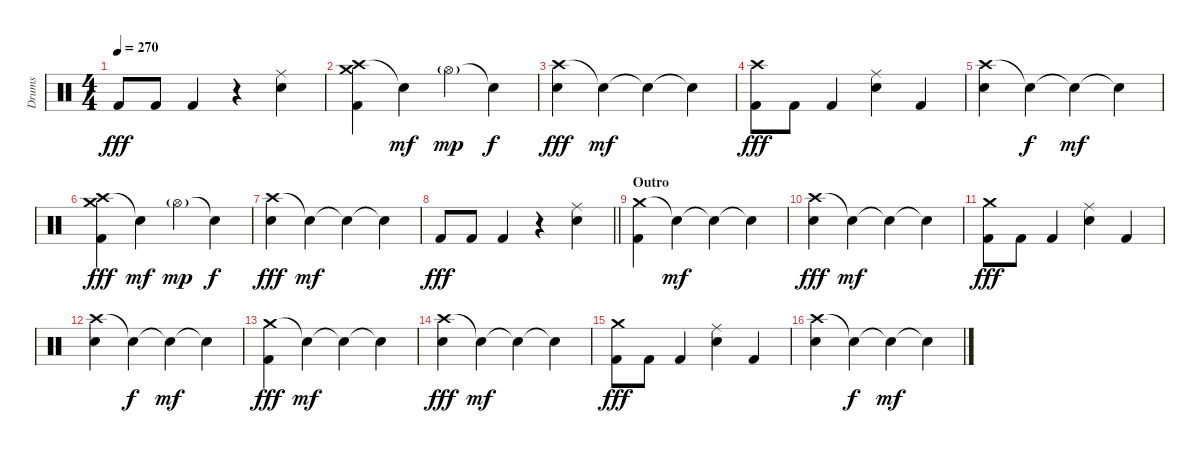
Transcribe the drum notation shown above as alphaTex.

\track ("Drums" "Drums") {instrument percussion}
\staff {score}
\articulation defaults
\ts (4 4)
\tempo 270
\clef neutral
\ks c "Kick (hit) 2".8{dy fff} "Kick (hit) 2".8 "Kick (hit) 2".4
r.4 ("Ride (middle)" "Snare (hit) 2").4 |
("Crash high (hit)" "Crash medium (hit)" "Kick (hit) 2").4 "Snare (hit)"{t}.4{dy mf} "Hi-Hat (open)"{g}.4{dy mp} "Snare (hit)"{t}.4{dy f} |
("Crash high (hit)" "Snare (hit) 2").4{dy fff} "Snare (hit)"{t}.4{dy mf} "Snare (hit)"{t}.4 "Snare (hit)"{t}.4 |
("Crash high (hit)" "Kick (hit) 2").8{dy fff} "Kick (hit) 2".8 "Kick (hit) 2".4 ("Ride (middle)" "Snare (hit) 2").4 "Kick (hit) 2".4 |
("Crash high (hit)" "Snare (hit) 2").4 "Snare (hit)"{t}.4{dy f} "Snare (hit)"{t}.4{dy mf} "Snare (hit)"{t}.4 |
("Crash high (hit)" "Crash medium (hit)" "Kick (hit) 2").4{dy fff} "Snare (hit)"{t}.4{dy mf} "Hi-Hat (open)"{g}.4{dy mp} "Snare (hit)"{t}.4{dy f} |
("Crash high (hit)" "Snare (hit) 2").4{dy fff} "Snare (hit)"{t}.4{dy mf} "Snare (hit)"{t}.4 "Snare (hit)"{t}.4 |
\barLineRight lightlight "Kick (hit) 2".8{dy fff} "Kick (hit) 2".8 "Kick (hit) 2".4
r.4 ("Ride (middle)" "Snare (hit) 2").4 |
\section ("" "Outro")
("Crash medium (hit)" "Kick (hit) 2").4 "Snare (hit)"{t}.4{dy mf} "Snare (hit)"{t}.4 "Snare (hit)"{t}.4 |
("Crash high (hit)" "Snare (hit) 2").4{dy fff} "Snare (hit)"{t}.4{dy mf} "Snare (hit)"{t}.4 "Snare (hit)"{t}.4 |
("Crash medium (hit)" "Kick (hit) 2").8{dy fff} "Kick (hit) 2".8 "Kick (hit) 2".4 ("Ride (middle)" "Snare (hit) 2").4 "Kick (hit) 2".4 |
("Crash high (hit)" "Snare (hit) 2").4 "Snare (hit)"{t}.4{dy f} "Snare (hit)"{t}.4{dy mf} "Snare (hit)"{t}.4 |
("Crash medium (hit)" "Kick (hit) 2").4{dy fff} "Snare (hit)"{t}.4{dy mf} "Snare (hit)"{t}.4 "Snare (hit)"{t}.4 |
("Crash high (hit)" "Snare (hit) 2").4{dy fff} "Snare (hit)"{t}.4{dy mf} "Snare (hit)"{t}.4 "Snare (hit)"{t}.4 |
("Crash medium (hit)" "Kick (hit) 2").8{dy fff} "Kick (hit) 2".8 "Kick (hit) 2".4 ("Ride (middle)" "Snare (hit) 2").4 "Kick (hit) 2".4 |
("Crash high (hit)" "Snare (hit) 2").4 "Snare (hit)"{t}.4{dy f} "Snare (hit)"{t}.4{dy mf} "Snare (hit)"{t}.4
